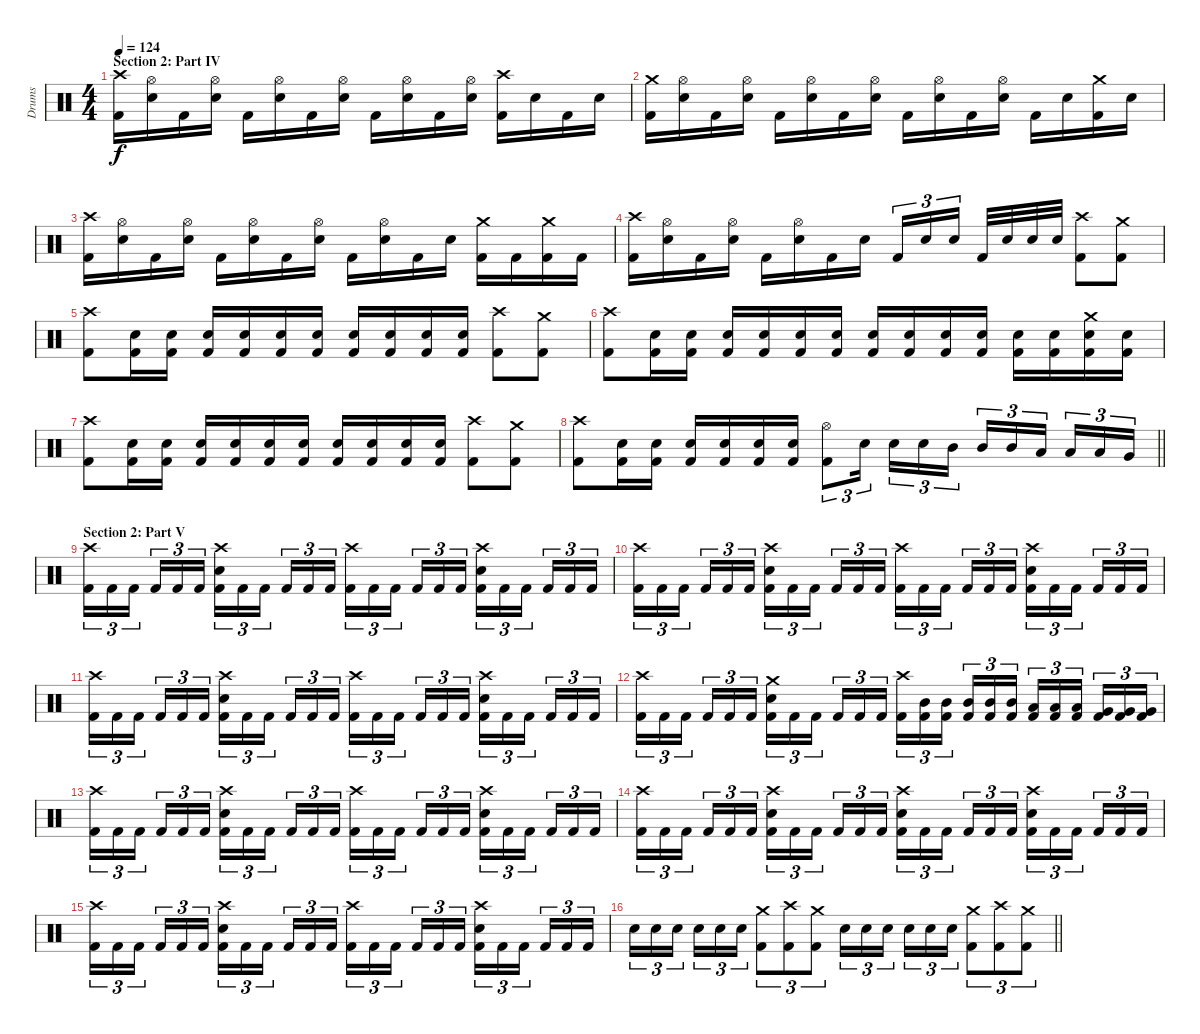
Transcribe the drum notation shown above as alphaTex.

\track ("Drums" "Drums") {instrument percussion}
\staff {score}
\articulation defaults
\ts (4 4)
\section ("" "Section 2: Part IV")
\tempo 124
\clef neutral
\ks c
("Crash high (hit)" "Kick (hit) 2").16{dy f} ("Hi-Hat (open)" "Electric Snare (hit)").16 "Kick (hit) 2".16 ("Hi-Hat (open)" "Electric Snare (hit)").16 "Kick (hit) 2".16 ("Hi-Hat (open)" "Electric Snare (hit)").16 "Kick (hit) 2".16 ("Hi-Hat (open)" "Electric Snare (hit)").16 "Kick (hit) 2".16 ("Hi-Hat (open)" "Electric Snare (hit)").16 "Kick (hit) 2".16 ("Hi-Hat (open)" "Electric Snare (hit)").16 ("Crash high (hit)" "Kick (hit) 2").16 "Electric Snare (hit)".16 "Kick (hit) 2".16 "Electric Snare (hit)".16 |
("Crash medium (hit)" "Kick (hit) 2").16 ("Hi-Hat (open)" "Electric Snare (hit)").16 "Kick (hit) 2".16 ("Hi-Hat (open)" "Electric Snare (hit)").16 "Kick (hit) 2".16 ("Hi-Hat (open)" "Electric Snare (hit)").16 "Kick (hit) 2".16 ("Hi-Hat (open)" "Electric Snare (hit)").16 "Kick (hit) 2".16 ("Hi-Hat (open)" "Electric Snare (hit)").16 "Kick (hit) 2".16 ("Hi-Hat (open)" "Electric Snare (hit)").16 "Kick (hit) 2".16 "Electric Snare (hit)".16 ("Crash medium (hit)" "Kick (hit) 2").16 "Electric Snare (hit)".16 |
("Crash high (hit)" "Kick (hit) 2").16 ("Hi-Hat (open)" "Electric Snare (hit)").16 "Kick (hit) 2".16 ("Hi-Hat (open)" "Electric Snare (hit)").16 "Kick (hit) 2".16 ("Hi-Hat (open)" "Electric Snare (hit)").16 "Kick (hit) 2".16 ("Hi-Hat (open)" "Electric Snare (hit)").16 "Kick (hit) 2".16 ("Hi-Hat (open)" "Electric Snare (hit)").16 "Kick (hit) 2".16 "Electric Snare (hit)".16 ("Crash medium (hit)" "Kick (hit) 2").16 "Kick (hit) 2".16 ("Crash medium (hit)" "Kick (hit) 2").16 "Kick (hit) 2".16 |
("Crash high (hit)" "Kick (hit) 2").16 ("Hi-Hat (open)" "Electric Snare (hit)").16 "Kick (hit) 2".16 ("Hi-Hat (open)" "Electric Snare (hit)").16 "Kick (hit) 2".16 ("Hi-Hat (open)" "Electric Snare (hit)").16 "Kick (hit) 2".16 "Electric Snare (hit)".16 "Kick (hit) 2".16{tu (3 2)} "Electric Snare (hit)".16{tu (3 2)} "Electric Snare (hit)".16{tu (3 2) beam splitsecondary} "Kick (hit) 2".32 "Electric Snare (hit)".32 "Electric Snare (hit)".32 "Electric Snare (hit)".32 ("Crash high (hit)" "Kick (hit) 2").8 ("Crash medium (hit)" "Kick (hit) 2").8 |
("Crash high (hit)" "Kick (hit) 2").8 ("Electric Snare (hit)" "Kick (hit) 2").16 ("Electric Snare (hit)" "Kick (hit) 2").16 ("Electric Snare (hit)" "Kick (hit) 2").16 ("Electric Snare (hit)" "Kick (hit) 2").16 ("Electric Snare (hit)" "Kick (hit) 2").16 ("Electric Snare (hit)" "Kick (hit) 2").16 ("Electric Snare (hit)" "Kick (hit) 2").16 ("Electric Snare (hit)" "Kick (hit) 2").16 ("Electric Snare (hit)" "Kick (hit) 2").16 ("Electric Snare (hit)" "Kick (hit) 2").16 ("Crash high (hit)" "Kick (hit) 2").8 ("Crash medium (hit)" "Kick (hit) 2").8 |
("Crash high (hit)" "Kick (hit) 2").8 ("Electric Snare (hit)" "Kick (hit) 2").16 ("Electric Snare (hit)" "Kick (hit) 2").16 ("Electric Snare (hit)" "Kick (hit) 2").16 ("Electric Snare (hit)" "Kick (hit) 2").16 ("Electric Snare (hit)" "Kick (hit) 2").16 ("Electric Snare (hit)" "Kick (hit) 2").16 ("Electric Snare (hit)" "Kick (hit) 2").16 ("Electric Snare (hit)" "Kick (hit) 2").16 ("Electric Snare (hit)" "Kick (hit) 2").16 ("Electric Snare (hit)" "Kick (hit) 2").16 ("Electric Snare (hit)" "Kick (hit) 2").16 ("Electric Snare (hit)" "Kick (hit) 2").16 ("Crash medium (hit)" "Electric Snare (hit)" "Kick (hit) 2").16 ("Electric Snare (hit)" "Kick (hit) 2").16 |
("Crash high (hit)" "Kick (hit) 2").8 ("Electric Snare (hit)" "Kick (hit) 2").16 ("Electric Snare (hit)" "Kick (hit) 2").16 ("Electric Snare (hit)" "Kick (hit) 2").16 ("Electric Snare (hit)" "Kick (hit) 2").16 ("Electric Snare (hit)" "Kick (hit) 2").16 ("Electric Snare (hit)" "Kick (hit) 2").16 ("Electric Snare (hit)" "Kick (hit) 2").16 ("Electric Snare (hit)" "Kick (hit) 2").16 ("Electric Snare (hit)" "Kick (hit) 2").16 ("Electric Snare (hit)" "Kick (hit) 2").16 ("Crash high (hit)" "Kick (hit) 2").8 ("Crash medium (hit)" "Kick (hit) 2").8 |
\barLineRight lightlight
("Crash high (hit)" "Kick (hit) 2").8 ("Electric Snare (hit)" "Kick (hit) 2").16 ("Electric Snare (hit)" "Kick (hit) 2").16 ("Electric Snare (hit)" "Kick (hit) 2").16 ("Electric Snare (hit)" "Kick (hit) 2").16 ("Electric Snare (hit)" "Kick (hit) 2").16 ("Electric Snare (hit)" "Kick (hit) 2").16 ("Hi-Hat (open)" "Kick (hit) 2").8{tu (3 2)} "Electric Snare (hit)".16{tu (3 2) beam splitsecondary} "Electric Snare (hit)".16{tu (3 2)} "Electric Snare (hit)".16{tu (3 2)} "Mid Tom (hit)".16{tu (3 2)} "Mid Tom (hit)".16{tu (3 2)} "Mid Tom (hit)".16{tu (3 2)} "Low Tom (hit)".16{tu (3 2) beam splitsecondary} "Low Tom (hit)".16{tu (3 2)} "Low Tom (hit)".16{tu (3 2)} "Very Low Tom (hit)".16{tu (3 2)} |
\section ("" "Section 2: Part V")
("Crash high (hit)" "Kick (hit) 2").16{tu (3 2)} "Kick (hit) 2".16{tu (3 2)} "Kick (hit) 2".16{tu (3 2) beam splitsecondary} "Kick (hit) 2".16{tu (3 2)} "Kick (hit) 2".16{tu (3 2)} "Kick (hit) 2".16{tu (3 2)} ("Crash high (hit)" "Electric Snare (hit)" "Kick (hit) 2").16{tu (3 2)} "Kick (hit) 2".16{tu (3 2)} "Kick (hit) 2".16{tu (3 2) beam splitsecondary} "Kick (hit) 2".16{tu (3 2)} "Kick (hit) 2".16{tu (3 2)} "Kick (hit) 2".16{tu (3 2)} ("Crash high (hit)" "Kick (hit) 2").16{tu (3 2)} "Kick (hit) 2".16{tu (3 2)} "Kick (hit) 2".16{tu (3 2) beam splitsecondary} "Kick (hit) 2".16{tu (3 2)} "Kick (hit) 2".16{tu (3 2)} "Kick (hit) 2".16{tu (3 2)} ("Crash high (hit)" "Electric Snare (hit)" "Kick (hit) 2").16{tu (3 2)} "Kick (hit) 2".16{tu (3 2)} "Kick (hit) 2".16{tu (3 2) beam splitsecondary} "Kick (hit) 2".16{tu (3 2)} "Kick (hit) 2".16{tu (3 2)} "Kick (hit) 2".16{tu (3 2)} |
("Crash high (hit)" "Kick (hit) 2").16{tu (3 2)} "Kick (hit) 2".16{tu (3 2)} "Kick (hit) 2".16{tu (3 2) beam splitsecondary} "Kick (hit) 2".16{tu (3 2)} "Kick (hit) 2".16{tu (3 2)} "Kick (hit) 2".16{tu (3 2)} ("Crash high (hit)" "Electric Snare (hit)" "Kick (hit) 2").16{tu (3 2)} "Kick (hit) 2".16{tu (3 2)} "Kick (hit) 2".16{tu (3 2) beam splitsecondary} "Kick (hit) 2".16{tu (3 2)} "Kick (hit) 2".16{tu (3 2)} "Kick (hit) 2".16{tu (3 2)} ("Crash high (hit)" "Kick (hit) 2").16{tu (3 2)} "Kick (hit) 2".16{tu (3 2)} "Kick (hit) 2".16{tu (3 2) beam splitsecondary} "Kick (hit) 2".16{tu (3 2)} "Kick (hit) 2".16{tu (3 2)} "Kick (hit) 2".16{tu (3 2)} ("Crash high (hit)" "Electric Snare (hit)" "Kick (hit) 2").16{tu (3 2)} "Kick (hit) 2".16{tu (3 2)} "Kick (hit) 2".16{tu (3 2) beam splitsecondary} "Kick (hit) 2".16{tu (3 2)} "Kick (hit) 2".16{tu (3 2)} "Kick (hit) 2".16{tu (3 2)} |
("Crash high (hit)" "Kick (hit) 2").16{tu (3 2)} "Kick (hit) 2".16{tu (3 2)} "Kick (hit) 2".16{tu (3 2) beam splitsecondary} "Kick (hit) 2".16{tu (3 2)} "Kick (hit) 2".16{tu (3 2)} "Kick (hit) 2".16{tu (3 2)} ("Crash high (hit)" "Electric Snare (hit)" "Kick (hit) 2").16{tu (3 2)} "Kick (hit) 2".16{tu (3 2)} "Kick (hit) 2".16{tu (3 2) beam splitsecondary} "Kick (hit) 2".16{tu (3 2)} "Kick (hit) 2".16{tu (3 2)} "Kick (hit) 2".16{tu (3 2)} ("Crash high (hit)" "Kick (hit) 2").16{tu (3 2)} "Kick (hit) 2".16{tu (3 2)} "Kick (hit) 2".16{tu (3 2) beam splitsecondary} "Kick (hit) 2".16{tu (3 2)} "Kick (hit) 2".16{tu (3 2)} "Kick (hit) 2".16{tu (3 2)} ("Crash high (hit)" "Electric Snare (hit)" "Kick (hit) 2").16{tu (3 2)} "Kick (hit) 2".16{tu (3 2)} "Kick (hit) 2".16{tu (3 2) beam splitsecondary} "Kick (hit) 2".16{tu (3 2)} "Kick (hit) 2".16{tu (3 2)} "Kick (hit) 2".16{tu (3 2)} |
("Crash high (hit)" "Kick (hit) 2").16{tu (3 2)} "Kick (hit) 2".16{tu (3 2)} "Kick (hit) 2".16{tu (3 2) beam splitsecondary} "Kick (hit) 2".16{tu (3 2)} "Kick (hit) 2".16{tu (3 2)} "Kick (hit) 2".16{tu (3 2)} ("Crash medium (hit)" "Electric Snare (hit)" "Kick (hit) 2").16{tu (3 2)} "Kick (hit) 2".16{tu (3 2)} "Kick (hit) 2".16{tu (3 2) beam splitsecondary} "Kick (hit) 2".16{tu (3 2)} "Kick (hit) 2".16{tu (3 2)} "Kick (hit) 2".16{tu (3 2)} ("Crash high (hit)" "Kick (hit) 2").16{tu (3 2)} ("Mid Tom (hit)" "Kick (hit) 2").16{tu (3 2)} ("Mid Tom (hit)" "Kick (hit) 2").16{tu (3 2) beam splitsecondary} ("Mid Tom (hit)" "Kick (hit) 2").16{tu (3 2)} ("Mid Tom (hit)" "Kick (hit) 2").16{tu (3 2)} ("Mid Tom (hit)" "Kick (hit) 2").16{tu (3 2)} ("Low Tom (hit)" "Kick (hit) 2").16{tu (3 2)} ("Low Tom (hit)" "Kick (hit) 2").16{tu (3 2)} ("Low Tom (hit)" "Kick (hit) 2").16{tu (3 2) beam splitsecondary} ("Very Low Tom (hit)" "Kick (hit) 2").16{tu (3 2)} ("Very Low Tom (hit)" "Kick (hit) 2").16{tu (3 2)} ("Very Low Tom (hit)" "Kick (hit) 2").16{tu (3 2)} |
("Crash high (hit)" "Kick (hit) 2").16{tu (3 2)} "Kick (hit) 2".16{tu (3 2)} "Kick (hit) 2".16{tu (3 2) beam splitsecondary} "Kick (hit) 2".16{tu (3 2)} "Kick (hit) 2".16{tu (3 2)} "Kick (hit) 2".16{tu (3 2)} ("Crash high (hit)" "Electric Snare (hit)" "Kick (hit) 2").16{tu (3 2)} "Kick (hit) 2".16{tu (3 2)} "Kick (hit) 2".16{tu (3 2) beam splitsecondary} "Kick (hit) 2".16{tu (3 2)} "Kick (hit) 2".16{tu (3 2)} "Kick (hit) 2".16{tu (3 2)} ("Crash high (hit)" "Kick (hit) 2").16{tu (3 2)} "Kick (hit) 2".16{tu (3 2)} "Kick (hit) 2".16{tu (3 2) beam splitsecondary} "Kick (hit) 2".16{tu (3 2)} "Kick (hit) 2".16{tu (3 2)} "Kick (hit) 2".16{tu (3 2)} ("Crash high (hit)" "Electric Snare (hit)" "Kick (hit) 2").16{tu (3 2)} "Kick (hit) 2".16{tu (3 2)} "Kick (hit) 2".16{tu (3 2) beam splitsecondary} "Kick (hit) 2".16{tu (3 2)} "Kick (hit) 2".16{tu (3 2)} "Kick (hit) 2".16{tu (3 2)} |
("Crash high (hit)" "Kick (hit) 2").16{tu (3 2)} "Kick (hit) 2".16{tu (3 2)} "Kick (hit) 2".16{tu (3 2) beam splitsecondary} "Kick (hit) 2".16{tu (3 2)} "Kick (hit) 2".16{tu (3 2)} "Kick (hit) 2".16{tu (3 2)} ("Crash high (hit)" "Electric Snare (hit)" "Kick (hit) 2").16{tu (3 2)} "Kick (hit) 2".16{tu (3 2)} "Kick (hit) 2".16{tu (3 2) beam splitsecondary} "Kick (hit) 2".16{tu (3 2)} "Kick (hit) 2".16{tu (3 2)} "Kick (hit) 2".16{tu (3 2)} ("Crash high (hit)" "Electric Snare (hit)" "Kick (hit) 2").16{tu (3 2)} "Kick (hit) 2".16{tu (3 2)} "Kick (hit) 2".16{tu (3 2) beam splitsecondary} "Kick (hit) 2".16{tu (3 2)} "Kick (hit) 2".16{tu (3 2)} "Kick (hit) 2".16{tu (3 2)} ("Crash high (hit)" "Electric Snare (hit)" "Kick (hit) 2").16{tu (3 2)} "Kick (hit) 2".16{tu (3 2)} "Kick (hit) 2".16{tu (3 2) beam splitsecondary} "Kick (hit) 2".16{tu (3 2)} "Kick (hit) 2".16{tu (3 2)} "Kick (hit) 2".16{tu (3 2)} |
("Crash high (hit)" "Kick (hit) 2").16{tu (3 2)} "Kick (hit) 2".16{tu (3 2)} "Kick (hit) 2".16{tu (3 2) beam splitsecondary} "Kick (hit) 2".16{tu (3 2)} "Kick (hit) 2".16{tu (3 2)} "Kick (hit) 2".16{tu (3 2)} ("Crash high (hit)" "Electric Snare (hit)" "Kick (hit) 2").16{tu (3 2)} "Kick (hit) 2".16{tu (3 2)} "Kick (hit) 2".16{tu (3 2) beam splitsecondary} "Kick (hit) 2".16{tu (3 2)} "Kick (hit) 2".16{tu (3 2)} "Kick (hit) 2".16{tu (3 2)} ("Crash high (hit)" "Kick (hit) 2").16{tu (3 2)} "Kick (hit) 2".16{tu (3 2)} "Kick (hit) 2".16{tu (3 2) beam splitsecondary} "Kick (hit) 2".16{tu (3 2)} "Kick (hit) 2".16{tu (3 2)} "Kick (hit) 2".16{tu (3 2)} ("Crash high (hit)" "Electric Snare (hit)" "Kick (hit) 2").16{tu (3 2)} "Kick (hit) 2".16{tu (3 2)} "Kick (hit) 2".16{tu (3 2) beam splitsecondary} "Kick (hit) 2".16{tu (3 2)} "Kick (hit) 2".16{tu (3 2)} "Kick (hit) 2".16{tu (3 2)} |
\barLineRight lightlight "Electric Snare (hit)".16{tu (3 2)} "Electric Snare (hit)".16{tu (3 2)} "Electric Snare (hit)".16{tu (3 2) beam splitsecondary} "Electric Snare (hit)".16{tu (3 2)} "Electric Snare (hit)".16{tu (3 2)} "Electric Snare (hit)".16{tu (3 2)}
("Crash medium (hit)" "Kick (hit) 2").8{tu (3 2)} ("Crash high (hit)" "Kick (hit) 2").8{tu (3 2)} ("Crash medium (hit)" "Kick (hit) 2").8{tu (3 2)} "Electric Snare (hit)".16{tu (3 2)} "Electric Snare (hit)".16{tu (3 2)} "Electric Snare (hit)".16{tu (3 2) beam splitsecondary} "Electric Snare (hit)".16{tu (3 2)} "Electric Snare (hit)".16{tu (3 2)} "Electric Snare (hit)".16{tu (3 2)} ("Crash medium (hit)" "Kick (hit) 2").8{tu (3 2)} ("Crash high (hit)" "Kick (hit) 2").8{tu (3 2)} ("Crash medium (hit)" "Kick (hit) 2").8{tu (3 2)}
